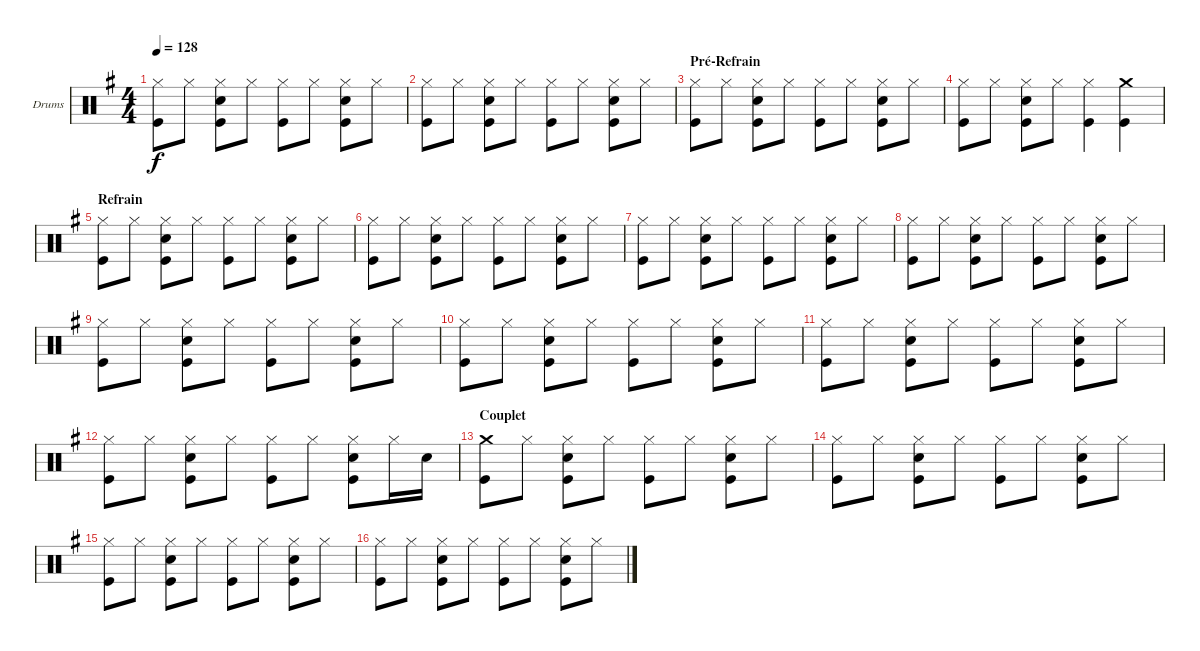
\bracketExtendMode groupsimilarinstruments
\firstSystemTrackNameOrientation horizontal
\otherSystemsTrackNameOrientation horizontal
\track ("Drumkit" "Drums") {multiBarRest instrument percussion}
\staff {score}
\articulation defaults
\ts (4 4)
\tempo 128
\clef neutral
\ks eminor
("Hi-Hat (closed)" "Kick (hit)").8{dy f} "Hi-Hat (closed)".8 ("Hi-Hat (closed)" "Snare (hit) 2" "Kick (hit)").8 "Hi-Hat (closed)".8 ("Hi-Hat (closed)" "Kick (hit)").8 "Hi-Hat (closed)".8 ("Hi-Hat (closed)" "Snare (hit) 2" "Kick (hit)").8 "Hi-Hat (closed)".8 |
("Hi-Hat (closed)" "Kick (hit)").8 "Hi-Hat (closed)".8 ("Hi-Hat (closed)" "Snare (hit) 2" "Kick (hit)").8 "Hi-Hat (closed)".8 ("Hi-Hat (closed)" "Kick (hit)").8 "Hi-Hat (closed)".8 ("Hi-Hat (closed)" "Snare (hit) 2" "Kick (hit)").8 "Hi-Hat (closed)".8 |
\section ("" "Pré-Refrain")
("Hi-Hat (closed)" "Kick (hit)").8 "Hi-Hat (closed)".8 ("Hi-Hat (closed)" "Snare (hit) 2" "Kick (hit)").8 "Hi-Hat (closed)".8 ("Hi-Hat (closed)" "Kick (hit)").8 "Hi-Hat (closed)".8 ("Hi-Hat (closed)" "Snare (hit) 2" "Kick (hit)").8 "Hi-Hat (closed)".8 |
("Hi-Hat (closed)" "Kick (hit)").8 "Hi-Hat (closed)".8 ("Hi-Hat (closed)" "Snare (hit) 2" "Kick (hit)").8 "Hi-Hat (closed)".8 ("Hi-Hat (closed)" "Kick (hit)").4 ("Crash medium (hit)" "Kick (hit)").4 |
\section ("" "Refrain")
("Hi-Hat (closed)" "Kick (hit)").8 "Hi-Hat (closed)".8 ("Hi-Hat (closed)" "Snare (hit) 2" "Kick (hit)").8 "Hi-Hat (closed)".8 ("Hi-Hat (closed)" "Kick (hit)").8 "Hi-Hat (closed)".8 ("Hi-Hat (closed)" "Snare (hit) 2" "Kick (hit)").8 "Hi-Hat (closed)".8 |
("Hi-Hat (closed)" "Kick (hit)").8 "Hi-Hat (closed)".8 ("Hi-Hat (closed)" "Snare (hit) 2" "Kick (hit)").8 "Hi-Hat (closed)".8 ("Hi-Hat (closed)" "Kick (hit)").8 "Hi-Hat (closed)".8 ("Hi-Hat (closed)" "Snare (hit) 2" "Kick (hit)").8 "Hi-Hat (closed)".8 |
("Hi-Hat (closed)" "Kick (hit)").8 "Hi-Hat (closed)".8 ("Hi-Hat (closed)" "Snare (hit) 2" "Kick (hit)").8 "Hi-Hat (closed)".8 ("Hi-Hat (closed)" "Kick (hit)").8 "Hi-Hat (closed)".8 ("Hi-Hat (closed)" "Snare (hit) 2" "Kick (hit)").8 "Hi-Hat (closed)".8 |
("Hi-Hat (closed)" "Kick (hit)").8 "Hi-Hat (closed)".8 ("Hi-Hat (closed)" "Snare (hit) 2" "Kick (hit)").8 "Hi-Hat (closed)".8 ("Hi-Hat (closed)" "Kick (hit)").8 "Hi-Hat (closed)".8 ("Hi-Hat (closed)" "Snare (hit) 2" "Kick (hit)").8 "Hi-Hat (closed)".8 |
("Hi-Hat (closed)" "Kick (hit)").8 "Hi-Hat (closed)".8 ("Hi-Hat (closed)" "Snare (hit) 2" "Kick (hit)").8 "Hi-Hat (closed)".8 ("Hi-Hat (closed)" "Kick (hit)").8 "Hi-Hat (closed)".8 ("Hi-Hat (closed)" "Snare (hit) 2" "Kick (hit)").8 "Hi-Hat (closed)".8 |
("Hi-Hat (closed)" "Kick (hit)").8 "Hi-Hat (closed)".8 ("Hi-Hat (closed)" "Snare (hit) 2" "Kick (hit)").8 "Hi-Hat (closed)".8 ("Hi-Hat (closed)" "Kick (hit)").8 "Hi-Hat (closed)".8 ("Hi-Hat (closed)" "Snare (hit) 2" "Kick (hit)").8 "Hi-Hat (closed)".8 |
("Hi-Hat (closed)" "Kick (hit)").8 "Hi-Hat (closed)".8 ("Hi-Hat (closed)" "Snare (hit) 2" "Kick (hit)").8 "Hi-Hat (closed)".8 ("Hi-Hat (closed)" "Kick (hit)").8 "Hi-Hat (closed)".8 ("Hi-Hat (closed)" "Snare (hit) 2" "Kick (hit)").8 "Hi-Hat (closed)".8 |
("Hi-Hat (closed)" "Kick (hit)").8 "Hi-Hat (closed)".8 ("Hi-Hat (closed)" "Snare (hit) 2" "Kick (hit)").8 "Hi-Hat (closed)".8 ("Hi-Hat (closed)" "Kick (hit)").8 "Hi-Hat (closed)".8 ("Hi-Hat (closed)" "Snare (hit) 2" "Kick (hit)").8 "Hi-Hat (closed)".16 "Snare (hit) 2".16 |
\section ("" "Couplet")
("Crash medium (hit)" "Kick (hit)").8 "Hi-Hat (closed)".8 ("Hi-Hat (closed)" "Snare (hit) 2" "Kick (hit)").8 "Hi-Hat (closed)".8 ("Hi-Hat (closed)" "Kick (hit)").8 "Hi-Hat (closed)".8 ("Hi-Hat (closed)" "Snare (hit) 2" "Kick (hit)").8 "Hi-Hat (closed)".8 |
("Hi-Hat (closed)" "Kick (hit)").8 "Hi-Hat (closed)".8 ("Hi-Hat (closed)" "Snare (hit) 2" "Kick (hit)").8 "Hi-Hat (closed)".8 ("Hi-Hat (closed)" "Kick (hit)").8 "Hi-Hat (closed)".8 ("Hi-Hat (closed)" "Snare (hit) 2" "Kick (hit)").8 "Hi-Hat (closed)".8 |
("Hi-Hat (closed)" "Kick (hit)").8 "Hi-Hat (closed)".8 ("Hi-Hat (closed)" "Snare (hit) 2" "Kick (hit)").8 "Hi-Hat (closed)".8 ("Hi-Hat (closed)" "Kick (hit)").8 "Hi-Hat (closed)".8 ("Hi-Hat (closed)" "Snare (hit) 2" "Kick (hit)").8 "Hi-Hat (closed)".8 |
("Hi-Hat (closed)" "Kick (hit)").8 "Hi-Hat (closed)".8 ("Hi-Hat (closed)" "Snare (hit) 2" "Kick (hit)").8 "Hi-Hat (closed)".8 ("Hi-Hat (closed)" "Kick (hit)").8 "Hi-Hat (closed)".8 ("Hi-Hat (closed)" "Snare (hit) 2" "Kick (hit)").8 "Hi-Hat (closed)".8
